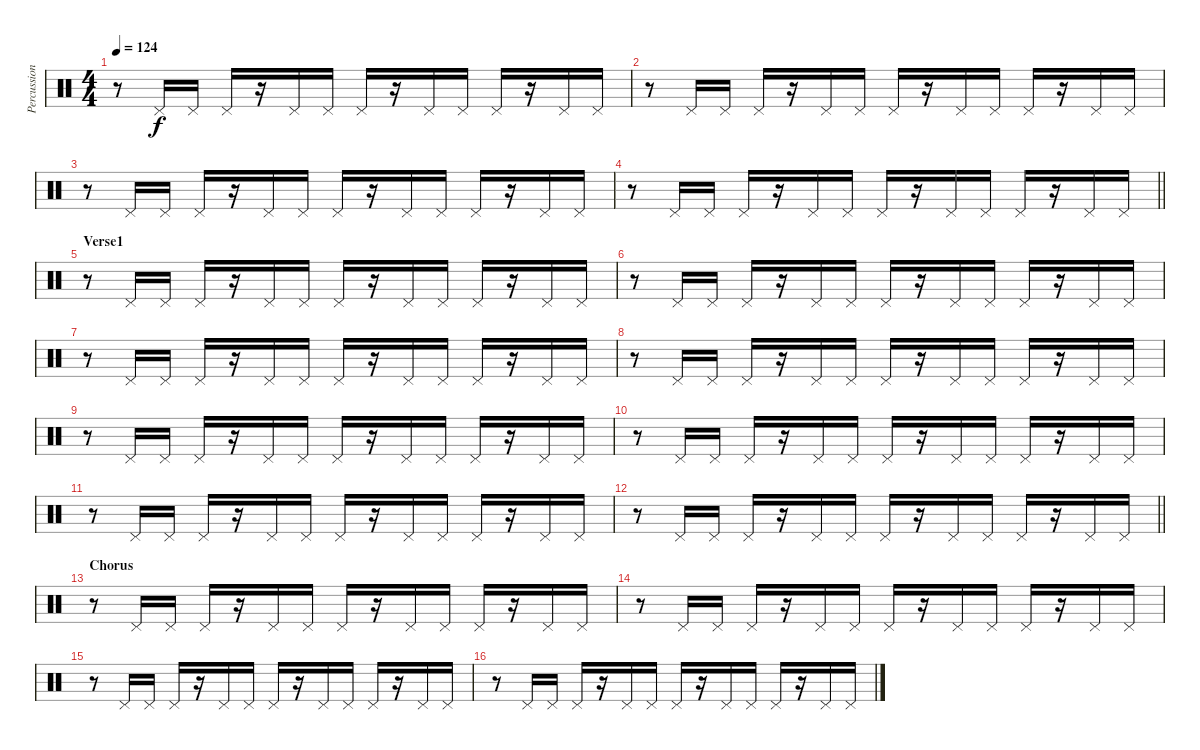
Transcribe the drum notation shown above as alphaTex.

\track ("Percussion" "Percussion") {instrument percussion}
\staff {score}
\articulation defaults
\ts (4 4)
\tempo 124
\clef neutral
\ks c
r.8{dy f} "Pedal Hi-Hat (hit)".16 "Pedal Hi-Hat (hit)".16 "Pedal Hi-Hat (hit)".16 r.16 "Pedal Hi-Hat (hit)".16 "Pedal Hi-Hat (hit)".16 "Pedal Hi-Hat (hit)".16 r.16 "Pedal Hi-Hat (hit)".16 "Pedal Hi-Hat (hit)".16 "Pedal Hi-Hat (hit)".16 r.16 "Pedal Hi-Hat (hit)".16 "Pedal Hi-Hat (hit)".16 |
r.8 "Pedal Hi-Hat (hit)".16 "Pedal Hi-Hat (hit)".16 "Pedal Hi-Hat (hit)".16 r.16 "Pedal Hi-Hat (hit)".16 "Pedal Hi-Hat (hit)".16 "Pedal Hi-Hat (hit)".16 r.16 "Pedal Hi-Hat (hit)".16 "Pedal Hi-Hat (hit)".16 "Pedal Hi-Hat (hit)".16 r.16 "Pedal Hi-Hat (hit)".16 "Pedal Hi-Hat (hit)".16 |
r.8 "Pedal Hi-Hat (hit)".16 "Pedal Hi-Hat (hit)".16 "Pedal Hi-Hat (hit)".16 r.16 "Pedal Hi-Hat (hit)".16 "Pedal Hi-Hat (hit)".16 "Pedal Hi-Hat (hit)".16 r.16 "Pedal Hi-Hat (hit)".16 "Pedal Hi-Hat (hit)".16 "Pedal Hi-Hat (hit)".16 r.16 "Pedal Hi-Hat (hit)".16 "Pedal Hi-Hat (hit)".16 |
\barLineRight lightlight
r.8 "Pedal Hi-Hat (hit)".16 "Pedal Hi-Hat (hit)".16 "Pedal Hi-Hat (hit)".16 r.16 "Pedal Hi-Hat (hit)".16 "Pedal Hi-Hat (hit)".16 "Pedal Hi-Hat (hit)".16 r.16 "Pedal Hi-Hat (hit)".16 "Pedal Hi-Hat (hit)".16 "Pedal Hi-Hat (hit)".16 r.16 "Pedal Hi-Hat (hit)".16 "Pedal Hi-Hat (hit)".16 |
\section ("" "Verse1")
r.8 "Pedal Hi-Hat (hit)".16 "Pedal Hi-Hat (hit)".16 "Pedal Hi-Hat (hit)".16 r.16 "Pedal Hi-Hat (hit)".16 "Pedal Hi-Hat (hit)".16 "Pedal Hi-Hat (hit)".16 r.16 "Pedal Hi-Hat (hit)".16 "Pedal Hi-Hat (hit)".16 "Pedal Hi-Hat (hit)".16 r.16 "Pedal Hi-Hat (hit)".16 "Pedal Hi-Hat (hit)".16 |
r.8 "Pedal Hi-Hat (hit)".16 "Pedal Hi-Hat (hit)".16 "Pedal Hi-Hat (hit)".16 r.16 "Pedal Hi-Hat (hit)".16 "Pedal Hi-Hat (hit)".16 "Pedal Hi-Hat (hit)".16 r.16 "Pedal Hi-Hat (hit)".16 "Pedal Hi-Hat (hit)".16 "Pedal Hi-Hat (hit)".16 r.16 "Pedal Hi-Hat (hit)".16 "Pedal Hi-Hat (hit)".16 |
r.8 "Pedal Hi-Hat (hit)".16 "Pedal Hi-Hat (hit)".16 "Pedal Hi-Hat (hit)".16 r.16 "Pedal Hi-Hat (hit)".16 "Pedal Hi-Hat (hit)".16 "Pedal Hi-Hat (hit)".16 r.16 "Pedal Hi-Hat (hit)".16 "Pedal Hi-Hat (hit)".16 "Pedal Hi-Hat (hit)".16 r.16 "Pedal Hi-Hat (hit)".16 "Pedal Hi-Hat (hit)".16 |
r.8 "Pedal Hi-Hat (hit)".16 "Pedal Hi-Hat (hit)".16 "Pedal Hi-Hat (hit)".16 r.16 "Pedal Hi-Hat (hit)".16 "Pedal Hi-Hat (hit)".16 "Pedal Hi-Hat (hit)".16 r.16 "Pedal Hi-Hat (hit)".16 "Pedal Hi-Hat (hit)".16 "Pedal Hi-Hat (hit)".16 r.16 "Pedal Hi-Hat (hit)".16 "Pedal Hi-Hat (hit)".16 |
r.8 "Pedal Hi-Hat (hit)".16 "Pedal Hi-Hat (hit)".16 "Pedal Hi-Hat (hit)".16 r.16 "Pedal Hi-Hat (hit)".16 "Pedal Hi-Hat (hit)".16 "Pedal Hi-Hat (hit)".16 r.16 "Pedal Hi-Hat (hit)".16 "Pedal Hi-Hat (hit)".16 "Pedal Hi-Hat (hit)".16 r.16 "Pedal Hi-Hat (hit)".16 "Pedal Hi-Hat (hit)".16 |
r.8 "Pedal Hi-Hat (hit)".16 "Pedal Hi-Hat (hit)".16 "Pedal Hi-Hat (hit)".16 r.16 "Pedal Hi-Hat (hit)".16 "Pedal Hi-Hat (hit)".16 "Pedal Hi-Hat (hit)".16 r.16 "Pedal Hi-Hat (hit)".16 "Pedal Hi-Hat (hit)".16 "Pedal Hi-Hat (hit)".16 r.16 "Pedal Hi-Hat (hit)".16 "Pedal Hi-Hat (hit)".16 |
r.8 "Pedal Hi-Hat (hit)".16 "Pedal Hi-Hat (hit)".16 "Pedal Hi-Hat (hit)".16 r.16 "Pedal Hi-Hat (hit)".16 "Pedal Hi-Hat (hit)".16 "Pedal Hi-Hat (hit)".16 r.16 "Pedal Hi-Hat (hit)".16 "Pedal Hi-Hat (hit)".16 "Pedal Hi-Hat (hit)".16 r.16 "Pedal Hi-Hat (hit)".16 "Pedal Hi-Hat (hit)".16 |
\barLineRight lightlight
r.8 "Pedal Hi-Hat (hit)".16 "Pedal Hi-Hat (hit)".16 "Pedal Hi-Hat (hit)".16 r.16 "Pedal Hi-Hat (hit)".16 "Pedal Hi-Hat (hit)".16 "Pedal Hi-Hat (hit)".16 r.16 "Pedal Hi-Hat (hit)".16 "Pedal Hi-Hat (hit)".16 "Pedal Hi-Hat (hit)".16 r.16 "Pedal Hi-Hat (hit)".16 "Pedal Hi-Hat (hit)".16 |
\section ("" "Chorus")
r.8 "Pedal Hi-Hat (hit)".16 "Pedal Hi-Hat (hit)".16 "Pedal Hi-Hat (hit)".16 r.16 "Pedal Hi-Hat (hit)".16 "Pedal Hi-Hat (hit)".16 "Pedal Hi-Hat (hit)".16 r.16 "Pedal Hi-Hat (hit)".16 "Pedal Hi-Hat (hit)".16 "Pedal Hi-Hat (hit)".16 r.16 "Pedal Hi-Hat (hit)".16 "Pedal Hi-Hat (hit)".16 |
r.8 "Pedal Hi-Hat (hit)".16 "Pedal Hi-Hat (hit)".16 "Pedal Hi-Hat (hit)".16 r.16 "Pedal Hi-Hat (hit)".16 "Pedal Hi-Hat (hit)".16 "Pedal Hi-Hat (hit)".16 r.16 "Pedal Hi-Hat (hit)".16 "Pedal Hi-Hat (hit)".16 "Pedal Hi-Hat (hit)".16 r.16 "Pedal Hi-Hat (hit)".16 "Pedal Hi-Hat (hit)".16 |
r.8 "Pedal Hi-Hat (hit)".16 "Pedal Hi-Hat (hit)".16 "Pedal Hi-Hat (hit)".16 r.16 "Pedal Hi-Hat (hit)".16 "Pedal Hi-Hat (hit)".16 "Pedal Hi-Hat (hit)".16 r.16 "Pedal Hi-Hat (hit)".16 "Pedal Hi-Hat (hit)".16 "Pedal Hi-Hat (hit)".16 r.16 "Pedal Hi-Hat (hit)".16 "Pedal Hi-Hat (hit)".16 |
r.8 "Pedal Hi-Hat (hit)".16 "Pedal Hi-Hat (hit)".16 "Pedal Hi-Hat (hit)".16 r.16 "Pedal Hi-Hat (hit)".16 "Pedal Hi-Hat (hit)".16 "Pedal Hi-Hat (hit)".16 r.16 "Pedal Hi-Hat (hit)".16 "Pedal Hi-Hat (hit)".16 "Pedal Hi-Hat (hit)".16 r.16 "Pedal Hi-Hat (hit)".16 "Pedal Hi-Hat (hit)".16
